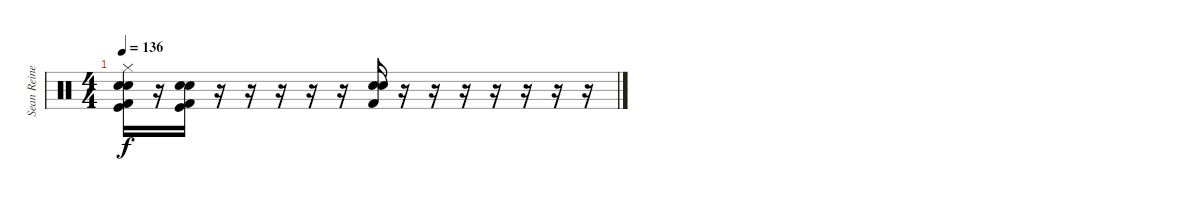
\track ("Sean Reinert" "Sean Reine") {instrument percussion}
\staff {score}
\articulation defaults
\ts (4 4)
\tempo 136
\clef neutral
\ks c
("Hi-Hat (closed)" "Electric Snare (hit)" "Snare (hit) 2" "Kick (hit) 2" "Kick (hit)").16{dy f} r.16 ("Kick (hit)" "Kick (hit) 2" "Electric Snare (hit)" "Snare (hit) 2").16 r.16 r.16 r.16 r.16 r.16 ("Electric Snare (hit)" "Snare (hit) 2" "Kick (hit) 2").16 r.16 r.16 r.16 r.16 r.16 r.16 r.16
